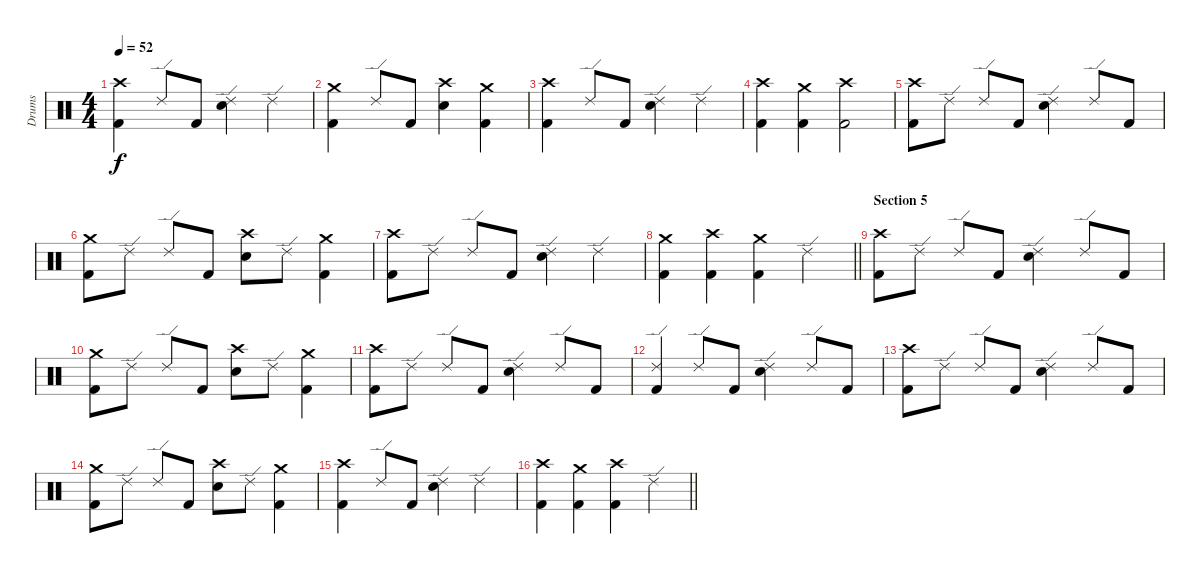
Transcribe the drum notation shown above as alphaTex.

\track ("Drums" "Drums") {instrument percussion}
\staff {score}
\articulation defaults
\ts (4 4)
\tempo 52
\clef neutral
\ks c
("Crash high (hit)" "Kick (hit) 2").4{dy f} "Ride (edge) 2".8 "Kick (hit) 2".8 ("Ride (edge) 2" "Electric Snare (hit)").4 "Ride (edge) 2".4 |
("Crash medium (hit)" "Kick (hit) 2").4 "Ride (edge) 2".8 "Kick (hit) 2".8 ("Crash high (hit)" "Electric Snare (hit)").4 ("Crash medium (hit)" "Kick (hit) 2").4 |
("Crash high (hit)" "Kick (hit) 2").4 "Ride (edge) 2".8 "Kick (hit) 2".8 ("Ride (edge) 2" "Electric Snare (hit)").4 "Ride (edge) 2".4 |
("Crash high (hit)" "Kick (hit) 2").4 ("Crash medium (hit)" "Kick (hit) 2").4 ("Crash high (hit)" "Kick (hit) 2").2 |
("Crash high (hit)" "Kick (hit) 2").8 "Ride (edge) 2".8 "Ride (edge) 2".8 "Kick (hit) 2".8 ("Ride (edge) 2" "Electric Snare (hit)").4 "Ride (edge) 2".8 "Kick (hit) 2".8 |
("Crash medium (hit)" "Kick (hit) 2").8 "Ride (edge) 2".8 "Ride (edge) 2".8 "Kick (hit) 2".8 ("Crash high (hit)" "Electric Snare (hit)").8 "Ride (edge) 2".8 ("Crash medium (hit)" "Kick (hit) 2").4 |
("Crash high (hit)" "Kick (hit) 2").8 "Ride (edge) 2".8 "Ride (edge) 2".8 "Kick (hit) 2".8 ("Ride (edge) 2" "Electric Snare (hit)").4 "Ride (edge) 2".4 |
\barLineRight lightlight
("Crash medium (hit)" "Kick (hit) 2").4 ("Crash high (hit)" "Kick (hit) 2").4 ("Crash medium (hit)" "Kick (hit) 2").4 "Ride (edge) 2".4 |
\section ("" "Section 5")
("Crash high (hit)" "Kick (hit) 2").8 "Ride (edge) 2".8 "Ride (edge) 2".8 "Kick (hit) 2".8 ("Ride (edge) 2" "Electric Snare (hit)").4 "Ride (edge) 2".8 "Kick (hit) 2".8 |
("Crash medium (hit)" "Kick (hit) 2").8 "Ride (edge) 2".8 "Ride (edge) 2".8 "Kick (hit) 2".8 ("Crash high (hit)" "Electric Snare (hit)").8 "Ride (edge) 2".8 ("Crash medium (hit)" "Kick (hit) 2").4 |
("Crash high (hit)" "Kick (hit) 2").8 "Ride (edge) 2".8 "Ride (edge) 2".8 "Kick (hit) 2".8 ("Ride (edge) 2" "Electric Snare (hit)").4 "Ride (edge) 2".8 "Kick (hit) 2".8 |
("Ride (edge) 2" "Kick (hit) 2").4 "Ride (edge) 2".8 "Kick (hit) 2".8 ("Ride (edge) 2" "Electric Snare (hit)").4 "Ride (edge) 2".8 "Kick (hit) 2".8 |
("Crash high (hit)" "Kick (hit) 2").8 "Ride (edge) 2".8 "Ride (edge) 2".8 "Kick (hit) 2".8 ("Ride (edge) 2" "Electric Snare (hit)").4 "Ride (edge) 2".8 "Kick (hit) 2".8 |
("Crash medium (hit)" "Kick (hit) 2").8 "Ride (edge) 2".8 "Ride (edge) 2".8 "Kick (hit) 2".8 ("Crash high (hit)" "Electric Snare (hit)").8 "Ride (edge) 2".8 ("Crash medium (hit)" "Kick (hit) 2").4 |
("Crash high (hit)" "Kick (hit) 2").4 "Ride (edge) 2".8 "Kick (hit) 2".8 ("Ride (edge) 2" "Electric Snare (hit)").4 "Ride (edge) 2".4 |
\barLineRight lightlight
("Crash high (hit)" "Kick (hit) 2").4 ("Crash medium (hit)" "Kick (hit) 2").4 ("Crash high (hit)" "Kick (hit) 2").4 "Ride (edge) 2".4
